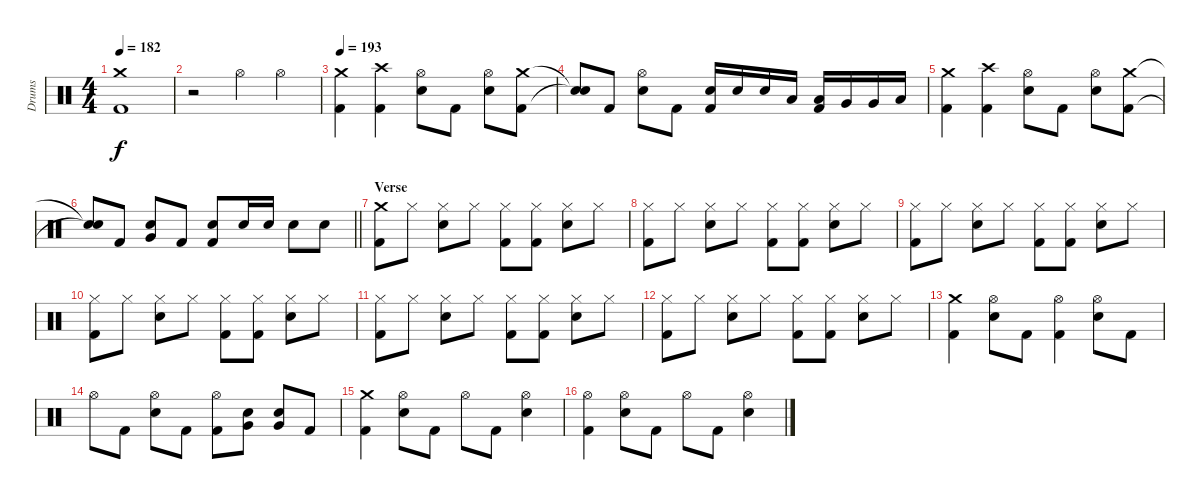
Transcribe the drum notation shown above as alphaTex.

\track ("Drums" "Drums") {instrument percussion}
\staff {score}
\articulation defaults
\ts (4 4)
\tempo 182
\clef neutral
\ks c
("Crash medium (hit)" "Kick (hit) 2").1{dy f} |
r.2 "Hi-Hat (open)".4 "Hi-Hat (open)".4 |
\tempo 193
("Crash medium (hit)" "Kick (hit) 2").4{volume 12} ("Crash high (hit)" "Kick (hit) 2").4 ("Hi-Hat (open)" "Electric Snare (hit)").8 "Kick (hit) 2".8 ("Hi-Hat (open)" "Electric Snare (hit)").8 ("Crash medium (hit)" "Kick (hit) 2").8 |
("Snare (hit)"{t} "Snare (hit)"{t}).8 "Kick (hit) 2".8 ("Hi-Hat (open)" "Electric Snare (hit)").8 "Kick (hit) 2".8 ("Electric Snare (hit)" "Kick (hit) 2").16 "Electric Snare (hit)".16 "Electric Snare (hit)".16 "Low Tom (hit)".16 ("Low Tom (hit)" "Kick (hit) 2").16 "Very Low Tom (hit)".16 "Very Low Tom (hit)".16 "Low Floor Tom (hit)".16 |
("Crash medium (hit)" "Kick (hit) 2").4 ("Crash high (hit)" "Kick (hit) 2").4 ("Hi-Hat (open)" "Electric Snare (hit)").8 "Kick (hit) 2".8 ("Hi-Hat (open)" "Electric Snare (hit)").8 ("Crash medium (hit)" "Kick (hit) 2").8 |
\barLineRight lightlight
("Snare (hit)"{t} "Snare (hit)"{t}).8 "Kick (hit) 2".8 ("Very Low Tom (hit)" "Electric Snare (hit)").8 "Kick (hit) 2".8 ("Electric Snare (hit)" "Kick (hit) 2").8 "Electric Snare (hit)".16 "Electric Snare (hit)".16 "Electric Snare (hit)".8 "Electric Snare (hit)".8 |
\section ("" "Verse")
("Crash medium (hit)" "Kick (hit) 2").8 "Hi-Hat (closed)".8 ("Hi-Hat (closed)" "Electric Snare (hit)").8 "Hi-Hat (closed)".8 ("Hi-Hat (closed)" "Kick (hit) 2").8 ("Hi-Hat (closed)" "Kick (hit) 2").8 ("Hi-Hat (closed)" "Electric Snare (hit)").8 "Hi-Hat (closed)".8 |
("Hi-Hat (closed)" "Kick (hit) 2").8 "Hi-Hat (closed)".8 ("Hi-Hat (closed)" "Electric Snare (hit)").8 "Hi-Hat (closed)".8 ("Hi-Hat (closed)" "Kick (hit) 2").8 ("Hi-Hat (closed)" "Kick (hit) 2").8 ("Hi-Hat (closed)" "Electric Snare (hit)").8 "Hi-Hat (closed)".8 |
("Hi-Hat (closed)" "Kick (hit) 2").8 "Hi-Hat (closed)".8 ("Hi-Hat (closed)" "Electric Snare (hit)").8 "Hi-Hat (closed)".8 ("Hi-Hat (closed)" "Kick (hit) 2").8 ("Hi-Hat (closed)" "Kick (hit) 2").8 ("Hi-Hat (closed)" "Electric Snare (hit)").8 "Hi-Hat (closed)".8 |
("Hi-Hat (closed)" "Kick (hit) 2").8 "Hi-Hat (closed)".8 ("Hi-Hat (closed)" "Electric Snare (hit)").8 "Hi-Hat (closed)".8 ("Hi-Hat (closed)" "Kick (hit) 2").8 ("Hi-Hat (closed)" "Kick (hit) 2").8 ("Hi-Hat (closed)" "Electric Snare (hit)").8 "Hi-Hat (closed)".8 |
("Hi-Hat (closed)" "Kick (hit) 2").8 "Hi-Hat (closed)".8 ("Hi-Hat (closed)" "Electric Snare (hit)").8 "Hi-Hat (closed)".8 ("Hi-Hat (closed)" "Kick (hit) 2").8 ("Hi-Hat (closed)" "Kick (hit) 2").8 ("Hi-Hat (closed)" "Electric Snare (hit)").8 "Hi-Hat (closed)".8 |
("Hi-Hat (closed)" "Kick (hit) 2").8 "Hi-Hat (closed)".8 ("Hi-Hat (closed)" "Electric Snare (hit)").8 "Hi-Hat (closed)".8 ("Hi-Hat (closed)" "Kick (hit) 2").8 ("Hi-Hat (closed)" "Kick (hit) 2").8 ("Hi-Hat (closed)" "Electric Snare (hit)").8 "Hi-Hat (closed)".8 |
("Crash medium (hit)" "Kick (hit) 2").4 ("Hi-Hat (open)" "Electric Snare (hit)").8 "Kick (hit) 2".8 ("Hi-Hat (open)" "Kick (hit) 2").4 ("Hi-Hat (open)" "Electric Snare (hit)").8 "Kick (hit) 2".8 |
"Hi-Hat (open)".8 "Kick (hit) 2".8 ("Hi-Hat (open)" "Electric Snare (hit)").8 "Kick (hit) 2".8 ("Hi-Hat (open)" "Kick (hit) 2").8 ("Very Low Tom (hit)" "Electric Snare (hit)").8 ("Very Low Tom (hit)" "Electric Snare (hit)").8 "Kick (hit) 2".8 |
("Crash medium (hit)" "Kick (hit) 2").4 ("Hi-Hat (open)" "Electric Snare (hit)").8 "Kick (hit) 2".8 "Hi-Hat (open)".8 "Kick (hit) 2".8 ("Hi-Hat (open)" "Electric Snare (hit)").4 |
("Hi-Hat (open)" "Kick (hit) 2").4 ("Hi-Hat (open)" "Electric Snare (hit)").8 "Kick (hit) 2".8 "Hi-Hat (open)".8 "Kick (hit) 2".8 ("Hi-Hat (open)" "Electric Snare (hit)").4
